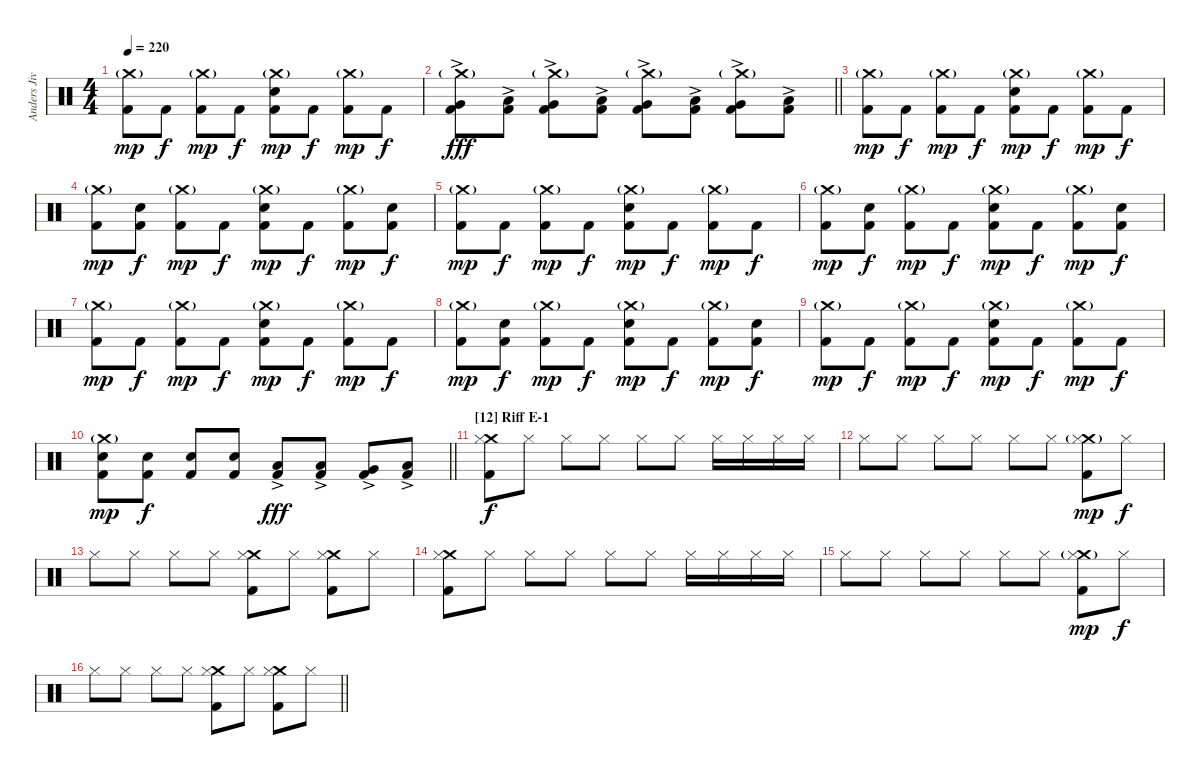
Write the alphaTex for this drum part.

\track ("Anders Jivarp" "Anders Jiv") {instrument percussion}
\staff {score}
\articulation defaults
\ts (4 4)
\tempo 220
\clef neutral
\ks c
("Crash medium (hit)"{g} "Kick (hit) 2").8{dy mp} "Kick (hit) 2".8{dy f} ("Crash medium (hit)"{g} "Kick (hit) 2").8{dy mp} "Kick (hit) 2".8{dy f} ("Crash medium (hit)"{g} "Snare (hit) 2" "Kick (hit) 2").8{dy mp} "Kick (hit) 2".8{dy f} ("Crash medium (hit)"{g} "Kick (hit) 2").8{dy mp} "Kick (hit) 2".8{dy f} |
\barLineRight lightlight
("Crash medium (hit)"{g} "Very Low Tom (hit)"{ac} "Kick (hit) 2").8{dy fff} ("Low Floor Tom (hit)"{ac} "Kick (hit) 2").8 ("Crash medium (hit)"{g} "Very Low Tom (hit)"{ac} "Kick (hit) 2").8 ("Low Tom (hit)"{ac} "Kick (hit) 2").8 ("Crash medium (hit)"{g} "Very Low Tom (hit)"{ac} "Kick (hit) 2").8 ("Low Floor Tom (hit)"{ac} "Kick (hit) 2").8 ("Crash medium (hit)"{g} "Very Low Tom (hit)"{ac} "Kick (hit) 2").8 ("Low Tom (hit)"{ac} "Kick (hit) 2").8 |
("Crash medium (hit)"{g} "Kick (hit) 2").8{dy mp} "Kick (hit) 2".8{dy f} ("Crash medium (hit)"{g} "Kick (hit) 2").8{dy mp} "Kick (hit) 2".8{dy f} ("Crash medium (hit)"{g} "Snare (hit) 2" "Kick (hit) 2").8{dy mp} "Kick (hit) 2".8{dy f} ("Crash medium (hit)"{g} "Kick (hit) 2").8{dy mp} "Kick (hit) 2".8{dy f} |
("Crash medium (hit)"{g} "Kick (hit) 2").8{dy mp} ("Snare (hit) 2" "Kick (hit) 2").8{dy f} ("Crash medium (hit)"{g} "Kick (hit) 2").8{dy mp} "Kick (hit) 2".8{dy f} ("Crash medium (hit)"{g} "Snare (hit) 2" "Kick (hit) 2").8{dy mp} "Kick (hit) 2".8{dy f} ("Crash medium (hit)"{g} "Kick (hit) 2").8{dy mp} ("Snare (hit) 2" "Kick (hit) 2").8{dy f} |
("Crash medium (hit)"{g} "Kick (hit) 2").8{dy mp} "Kick (hit) 2".8{dy f} ("Crash medium (hit)"{g} "Kick (hit) 2").8{dy mp} "Kick (hit) 2".8{dy f} ("Crash medium (hit)"{g} "Snare (hit) 2" "Kick (hit) 2").8{dy mp} "Kick (hit) 2".8{dy f} ("Crash medium (hit)"{g} "Kick (hit) 2").8{dy mp} "Kick (hit) 2".8{dy f} |
("Crash medium (hit)"{g} "Kick (hit) 2").8{dy mp} ("Snare (hit) 2" "Kick (hit) 2").8{dy f} ("Crash medium (hit)"{g} "Kick (hit) 2").8{dy mp} "Kick (hit) 2".8{dy f} ("Crash medium (hit)"{g} "Snare (hit) 2" "Kick (hit) 2").8{dy mp} "Kick (hit) 2".8{dy f} ("Crash medium (hit)"{g} "Kick (hit) 2").8{dy mp} ("Snare (hit) 2" "Kick (hit) 2").8{dy f} |
("Crash medium (hit)"{g} "Kick (hit) 2").8{dy mp} "Kick (hit) 2".8{dy f} ("Crash medium (hit)"{g} "Kick (hit) 2").8{dy mp} "Kick (hit) 2".8{dy f} ("Crash medium (hit)"{g} "Snare (hit) 2" "Kick (hit) 2").8{dy mp} "Kick (hit) 2".8{dy f} ("Crash medium (hit)"{g} "Kick (hit) 2").8{dy mp} "Kick (hit) 2".8{dy f} |
("Crash medium (hit)"{g} "Kick (hit) 2").8{dy mp} ("Snare (hit) 2" "Kick (hit) 2").8{dy f} ("Crash medium (hit)"{g} "Kick (hit) 2").8{dy mp} "Kick (hit) 2".8{dy f} ("Crash medium (hit)"{g} "Snare (hit) 2" "Kick (hit) 2").8{dy mp} "Kick (hit) 2".8{dy f} ("Crash medium (hit)"{g} "Kick (hit) 2").8{dy mp} ("Snare (hit) 2" "Kick (hit) 2").8{dy f} |
("Crash medium (hit)"{g} "Kick (hit) 2").8{dy mp} "Kick (hit) 2".8{dy f} ("Crash medium (hit)"{g} "Kick (hit) 2").8{dy mp} "Kick (hit) 2".8{dy f} ("Crash medium (hit)"{g} "Snare (hit) 2" "Kick (hit) 2").8{dy mp} "Kick (hit) 2".8{dy f} ("Crash medium (hit)"{g} "Kick (hit) 2").8{dy mp} "Kick (hit) 2".8{dy f} |
\barLineRight lightlight
("Crash medium (hit)"{g} "Snare (hit) 2" "Kick (hit) 2").8{dy mp} ("Snare (hit) 2" "Kick (hit) 2").8{dy f} ("Snare (hit) 2" "Kick (hit) 2").8 ("Snare (hit) 2" "Kick (hit) 2").8 ("Low Tom (hit)"{ac} "Kick (hit) 2").8{dy fff} ("Low Tom (hit)"{ac} "Kick (hit) 2").8 ("Very Low Tom (hit)"{ac} "Kick (hit) 2").8 ("Low Floor Tom (hit)"{ac} "Kick (hit) 2").8 |
\section ("" "[12] Riff E-1")
("Crash medium (hit)" "Hi-Hat (closed)" "Kick (hit) 2").8{dy f} "Hi-Hat (closed)".8 "Hi-Hat (closed)".8 "Hi-Hat (closed)".8 "Hi-Hat (closed)".8 "Hi-Hat (closed)".8 "Hi-Hat (closed)".16 "Hi-Hat (closed)".16 "Hi-Hat (closed)".16 "Hi-Hat (closed)".16 |
"Hi-Hat (closed)".8 "Hi-Hat (closed)".8 "Hi-Hat (closed)".8 "Hi-Hat (closed)".8 "Hi-Hat (closed)".8 "Hi-Hat (closed)".8 ("Crash medium (hit)"{g} "Hi-Hat (closed)" "Kick (hit) 2").8{dy mp} "Hi-Hat (closed)".8{dy f} |
"Hi-Hat (closed)".8 "Hi-Hat (closed)".8 "Hi-Hat (closed)".8 "Hi-Hat (closed)".8 ("Crash medium (hit)" "Hi-Hat (closed)" "Kick (hit) 2").8 "Hi-Hat (closed)".8 ("Crash medium (hit)" "Hi-Hat (closed)" "Kick (hit) 2").8 "Hi-Hat (closed)".8 |
("Crash medium (hit)" "Hi-Hat (closed)" "Kick (hit) 2").8 "Hi-Hat (closed)".8 "Hi-Hat (closed)".8 "Hi-Hat (closed)".8 "Hi-Hat (closed)".8 "Hi-Hat (closed)".8 "Hi-Hat (closed)".16 "Hi-Hat (closed)".16 "Hi-Hat (closed)".16 "Hi-Hat (closed)".16 |
"Hi-Hat (closed)".8 "Hi-Hat (closed)".8 "Hi-Hat (closed)".8 "Hi-Hat (closed)".8 "Hi-Hat (closed)".8 "Hi-Hat (closed)".8 ("Crash medium (hit)"{g} "Hi-Hat (closed)" "Kick (hit) 2").8{dy mp} "Hi-Hat (closed)".8{dy f} |
\barLineRight lightlight "Hi-Hat (closed)".8 "Hi-Hat (closed)".8 "Hi-Hat (closed)".8 "Hi-Hat (closed)".8
("Crash medium (hit)" "Hi-Hat (closed)" "Kick (hit) 2").8 "Hi-Hat (closed)".8 ("Crash medium (hit)" "Hi-Hat (closed)" "Kick (hit) 2").8 "Hi-Hat (closed)".8
